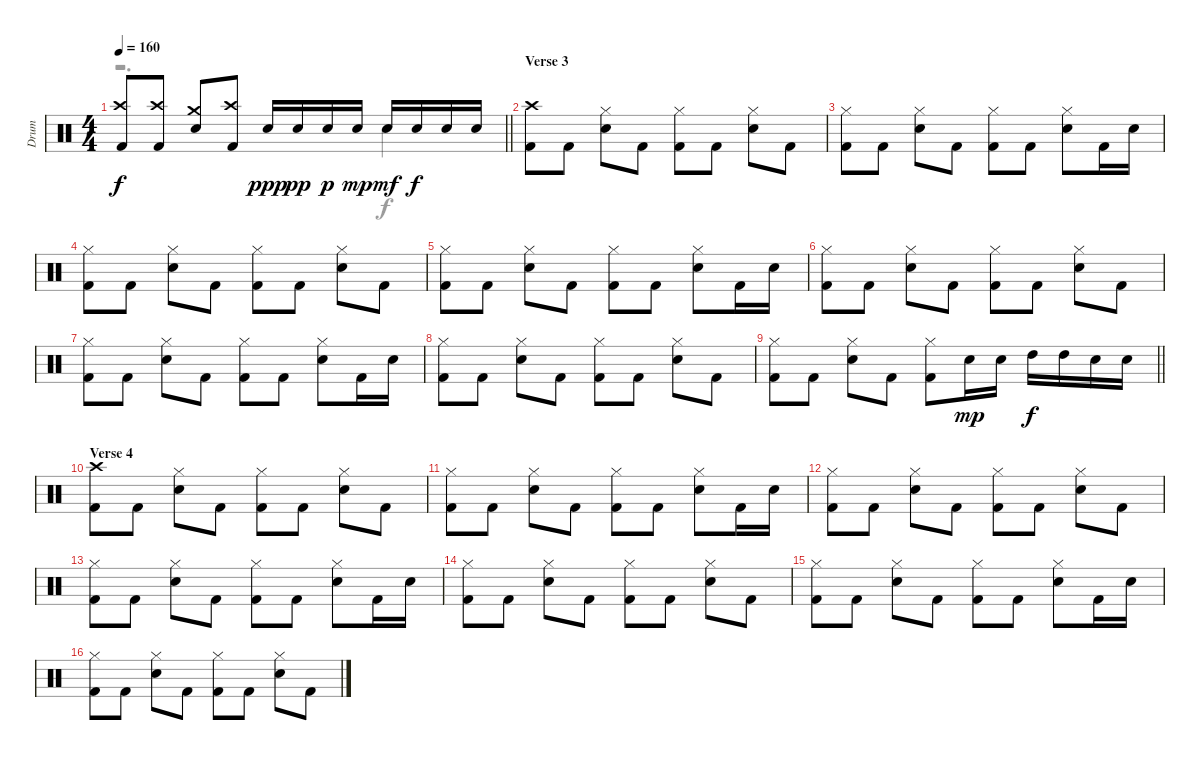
\track ("Drum" "Drum") {instrument percussion}
\staff {score}
\articulation defaults
\voice
\ts (4 4)
\tempo 160
\clef neutral
\barLineRight lightlight
\ks c
("Crash high (hit)" "Kick (hit) 2").8{dy f} ("Crash high (hit)" "Kick (hit) 2").8 ("Crash medium (hit)" "Electric Snare (hit)").8 ("Crash high (hit)" "Kick (hit) 2").8 "Electric Snare (hit)".16{dy ppp} "Electric Snare (hit)".16{dy pp} "Electric Snare (hit)".16{dy p} "Electric Snare (hit)".16{dy mp} "Electric Snare (hit)".16{dy mf} "Electric Snare (hit)".16{dy f} "Electric Snare (hit)".16 "Electric Snare (hit)".16 |
\section ("" "Verse 3")
("Crash high (hit)" "Kick (hit) 2").8 "Kick (hit) 2".8 ("Hi-Hat (closed)" "Electric Snare (hit)").8 "Kick (hit) 2".8 ("Hi-Hat (closed)" "Kick (hit) 2").8 "Kick (hit) 2".8 ("Hi-Hat (closed)" "Electric Snare (hit)").8 "Kick (hit) 2".8 |
("Hi-Hat (closed)" "Kick (hit) 2").8 "Kick (hit) 2".8 ("Hi-Hat (closed)" "Electric Snare (hit)").8 "Kick (hit) 2".8 ("Hi-Hat (closed)" "Kick (hit) 2").8 "Kick (hit) 2".8 ("Hi-Hat (closed)" "Electric Snare (hit)").8 "Kick (hit) 2".16 "Electric Snare (hit)".16 |
("Hi-Hat (closed)" "Kick (hit) 2").8 "Kick (hit) 2".8 ("Hi-Hat (closed)" "Electric Snare (hit)").8 "Kick (hit) 2".8 ("Hi-Hat (closed)" "Kick (hit) 2").8 "Kick (hit) 2".8 ("Hi-Hat (closed)" "Electric Snare (hit)").8 "Kick (hit) 2".8 |
("Hi-Hat (closed)" "Kick (hit) 2").8 "Kick (hit) 2".8 ("Hi-Hat (closed)" "Electric Snare (hit)").8 "Kick (hit) 2".8 ("Hi-Hat (closed)" "Kick (hit) 2").8 "Kick (hit) 2".8 ("Hi-Hat (closed)" "Electric Snare (hit)").8 "Kick (hit) 2".16 "Electric Snare (hit)".16 |
("Hi-Hat (closed)" "Kick (hit) 2").8 "Kick (hit) 2".8 ("Hi-Hat (closed)" "Electric Snare (hit)").8 "Kick (hit) 2".8 ("Hi-Hat (closed)" "Kick (hit) 2").8 "Kick (hit) 2".8 ("Hi-Hat (closed)" "Electric Snare (hit)").8 "Kick (hit) 2".8 |
("Hi-Hat (closed)" "Kick (hit) 2").8 "Kick (hit) 2".8 ("Hi-Hat (closed)" "Electric Snare (hit)").8 "Kick (hit) 2".8 ("Hi-Hat (closed)" "Kick (hit) 2").8 "Kick (hit) 2".8 ("Hi-Hat (closed)" "Electric Snare (hit)").8 "Kick (hit) 2".16 "Electric Snare (hit)".16 |
("Hi-Hat (closed)" "Kick (hit) 2").8 "Kick (hit) 2".8 ("Hi-Hat (closed)" "Electric Snare (hit)").8 "Kick (hit) 2".8 ("Hi-Hat (closed)" "Kick (hit) 2").8 "Kick (hit) 2".8 ("Hi-Hat (closed)" "Electric Snare (hit)").8 "Kick (hit) 2".8 |
\barLineRight lightlight
("Hi-Hat (closed)" "Kick (hit) 2").8 "Kick (hit) 2".8 ("Hi-Hat (closed)" "Electric Snare (hit)").8 "Kick (hit) 2".8 ("Hi-Hat (closed)" "Kick (hit) 2").8 "Electric Snare (hit)".16{dy mp} "Electric Snare (hit)".16 "High Tom (hit)".16{dy f} "High Tom (hit)".16 "Electric Snare (hit)".16 "Electric Snare (hit)".16 |
\section ("" "Verse 4")
("Crash high (hit)" "Kick (hit) 2").8 "Kick (hit) 2".8 ("Hi-Hat (closed)" "Electric Snare (hit)").8 "Kick (hit) 2".8 ("Hi-Hat (closed)" "Kick (hit) 2").8 "Kick (hit) 2".8 ("Hi-Hat (closed)" "Electric Snare (hit)").8 "Kick (hit) 2".8 |
("Hi-Hat (closed)" "Kick (hit) 2").8 "Kick (hit) 2".8 ("Hi-Hat (closed)" "Electric Snare (hit)").8 "Kick (hit) 2".8 ("Hi-Hat (closed)" "Kick (hit) 2").8 "Kick (hit) 2".8 ("Hi-Hat (closed)" "Electric Snare (hit)").8 "Kick (hit) 2".16 "Electric Snare (hit)".16 |
("Hi-Hat (closed)" "Kick (hit) 2").8 "Kick (hit) 2".8 ("Hi-Hat (closed)" "Electric Snare (hit)").8 "Kick (hit) 2".8 ("Hi-Hat (closed)" "Kick (hit) 2").8 "Kick (hit) 2".8 ("Hi-Hat (closed)" "Electric Snare (hit)").8 "Kick (hit) 2".8 |
("Hi-Hat (closed)" "Kick (hit) 2").8 "Kick (hit) 2".8 ("Hi-Hat (closed)" "Electric Snare (hit)").8 "Kick (hit) 2".8 ("Hi-Hat (closed)" "Kick (hit) 2").8 "Kick (hit) 2".8 ("Hi-Hat (closed)" "Electric Snare (hit)").8 "Kick (hit) 2".16 "Electric Snare (hit)".16 |
("Hi-Hat (closed)" "Kick (hit) 2").8 "Kick (hit) 2".8 ("Hi-Hat (closed)" "Electric Snare (hit)").8 "Kick (hit) 2".8 ("Hi-Hat (closed)" "Kick (hit) 2").8 "Kick (hit) 2".8 ("Hi-Hat (closed)" "Electric Snare (hit)").8 "Kick (hit) 2".8 |
("Hi-Hat (closed)" "Kick (hit) 2").8 "Kick (hit) 2".8 ("Hi-Hat (closed)" "Electric Snare (hit)").8 "Kick (hit) 2".8 ("Hi-Hat (closed)" "Kick (hit) 2").8 "Kick (hit) 2".8 ("Hi-Hat (closed)" "Electric Snare (hit)").8 "Kick (hit) 2".16 "Electric Snare (hit)".16 |
("Hi-Hat (closed)" "Kick (hit) 2").8 "Kick (hit) 2".8 ("Hi-Hat (closed)" "Electric Snare (hit)").8 "Kick (hit) 2".8 ("Hi-Hat (closed)" "Kick (hit) 2").8 "Kick (hit) 2".8 ("Hi-Hat (closed)" "Electric Snare (hit)").8 "Kick (hit) 2".8
\voice
\clef neutral
\ottava regular
\simile none
\barLineRight lightlight
\ks c
r.2{d dy f} "Electric Snare (hit)".4 |
|
|
|
|
|
|
|
\barLineRight lightlight
|
|
|
|
|
|
|
